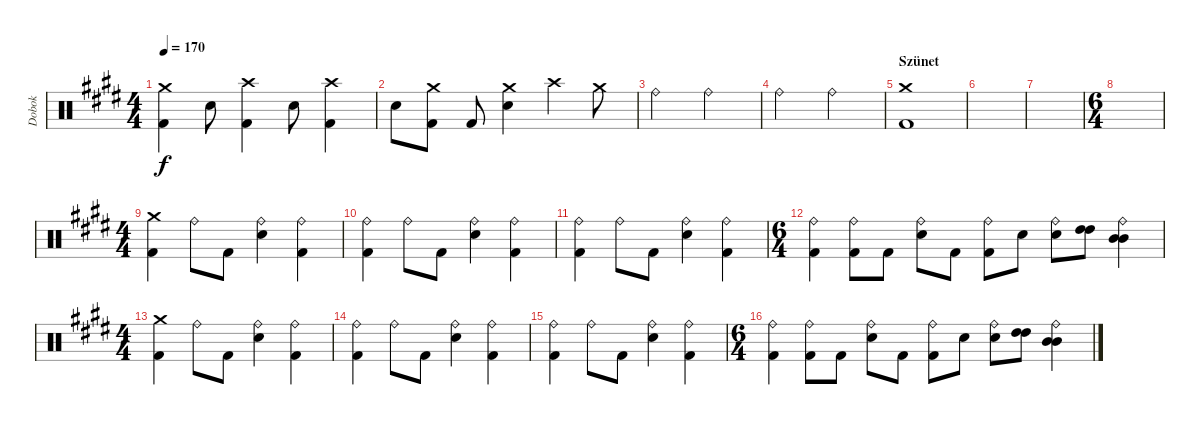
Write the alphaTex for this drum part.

\track ("Dobok" "Dobok") {instrument percussion}
\staff {score}
\articulation defaults
\ts (4 4)
\tempo 170
\clef neutral
\ks c#minor
("Crash medium (hit)" "Kick (hit) 2").4{dy f} "Snare (hit) 2".8 ("Crash high (hit)" "Kick (hit) 2").4 "Snare (hit) 2".8 ("Crash high (hit)" "Kick (hit) 2").4 |
"Snare (hit) 2".8 ("Crash medium (hit)" "Kick (hit) 2").8 "Kick (hit) 2".8 ("Crash medium (hit)" "Snare (hit) 2").4 "Crash high (hit)".4 "Crash medium (hit)".8 |
"Ride (bell)".2 "Ride (bell)".2 |
"Ride (bell)".2 "Ride (bell)".2 |
\section ("" "Szünet")
("Crash medium (hit)" "Kick (hit) 2").1 |
|
|
\ts (6 4)
|
\ts (4 4)
("Crash medium (hit)" "Kick (hit) 2").4 "Ride (bell)".8 "Kick (hit) 2".8 ("Ride (bell)" "Snare (hit) 2").4 ("Ride (bell)" "Kick (hit) 2").4 |
("Ride (bell)" "Kick (hit) 2").4 "Ride (bell)".8 "Kick (hit) 2".8 ("Ride (bell)" "Snare (hit) 2").4 ("Ride (bell)" "Kick (hit) 2").4 |
("Ride (bell)" "Kick (hit) 2").4 "Ride (bell)".8 "Kick (hit) 2".8 ("Ride (bell)" "Snare (hit) 2").4 ("Ride (bell)" "Kick (hit) 2").4 |
\ts (6 4)
("Ride (bell)" "Kick (hit) 2").4 ("Ride (bell)" "Kick (hit) 2").8 "Kick (hit) 2".8 ("Ride (bell)" "Snare (hit) 2").8 "Kick (hit) 2".8 ("Ride (bell)" "Kick (hit) 2").8 "Snare (hit) 2".8 ("Ride (bell)" "Snare (hit) 2").8 ("High Tom (hit)" "High Tom (hit)").8 ("Ride (bell)" "Mid Tom (hit)" "Mid Tom (hit)").4 |
\ts (4 4)
("Crash medium (hit)" "Kick (hit) 2").4 "Ride (bell)".8 "Kick (hit) 2".8 ("Ride (bell)" "Snare (hit) 2").4 ("Ride (bell)" "Kick (hit) 2").4 |
("Ride (bell)" "Kick (hit) 2").4 "Ride (bell)".8 "Kick (hit) 2".8 ("Ride (bell)" "Snare (hit) 2").4 ("Ride (bell)" "Kick (hit) 2").4 |
("Ride (bell)" "Kick (hit) 2").4 "Ride (bell)".8 "Kick (hit) 2".8 ("Ride (bell)" "Snare (hit) 2").4 ("Ride (bell)" "Kick (hit) 2").4 |
\ts (6 4)
("Ride (bell)" "Kick (hit) 2").4 ("Ride (bell)" "Kick (hit) 2").8 "Kick (hit) 2".8 ("Ride (bell)" "Snare (hit) 2").8 "Kick (hit) 2".8 ("Ride (bell)" "Kick (hit) 2").8 "Snare (hit) 2".8 ("Ride (bell)" "Snare (hit) 2").8 ("High Tom (hit)" "High Tom (hit)").8 ("Ride (bell)" "Mid Tom (hit)" "Mid Tom (hit)").4
